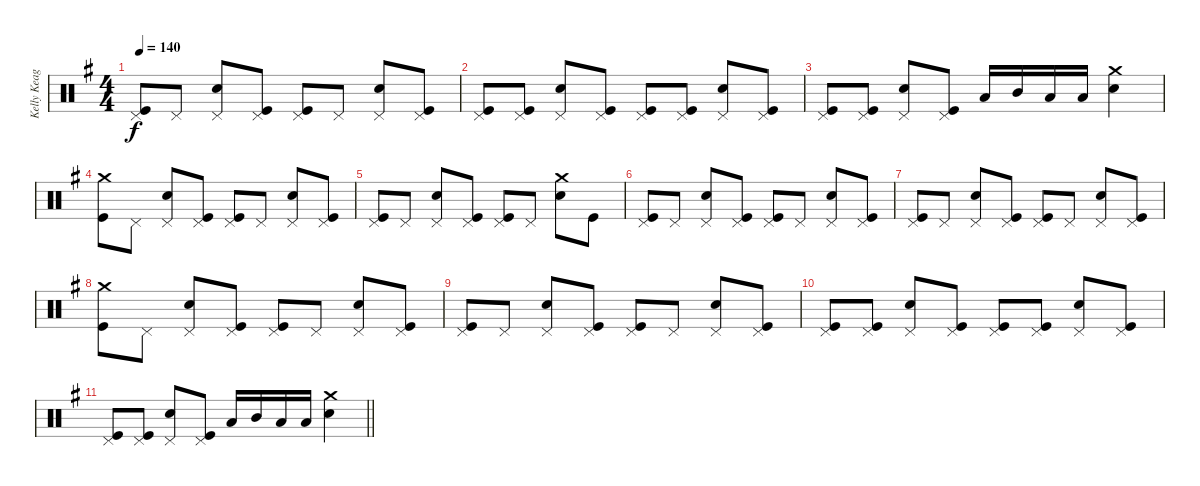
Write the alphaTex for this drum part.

\track ("Kelly Keagy" "Kelly Keag") {instrument percussion}
\staff {score}
\articulation defaults
\ts (4 4)
\tempo 140
\clef neutral
\ks g
("Pedal Hi-Hat (hit)" "Kick (hit)").8{dy f} "Pedal Hi-Hat (hit)".8 ("Pedal Hi-Hat (hit)" "Snare (hit) 2").8 ("Pedal Hi-Hat (hit)" "Kick (hit)").8 ("Pedal Hi-Hat (hit)" "Kick (hit)").8 "Pedal Hi-Hat (hit)".8 ("Pedal Hi-Hat (hit)" "Snare (hit) 2").8 ("Pedal Hi-Hat (hit)" "Kick (hit)").8 |
("Pedal Hi-Hat (hit)" "Kick (hit)").8 ("Pedal Hi-Hat (hit)" "Kick (hit)").8 ("Pedal Hi-Hat (hit)" "Snare (hit) 2").8 ("Pedal Hi-Hat (hit)" "Kick (hit)").8 ("Pedal Hi-Hat (hit)" "Kick (hit)").8 ("Pedal Hi-Hat (hit)" "Kick (hit)").8 ("Pedal Hi-Hat (hit)" "Snare (hit) 2").8 ("Pedal Hi-Hat (hit)" "Kick (hit)").8 |
("Pedal Hi-Hat (hit)" "Kick (hit)").8 ("Pedal Hi-Hat (hit)" "Kick (hit)").8 ("Pedal Hi-Hat (hit)" "Snare (hit) 2").8 ("Pedal Hi-Hat (hit)" "Kick (hit)").8 "Low Tom (hit)".16 "Mid Tom (hit)".16 "Low Tom (hit)".16 "Low Tom (hit)".16 ("Crash medium (hit)" "Snare (hit) 2").4 |
("Crash medium (hit)" "Kick (hit)").8{volume 0} "Pedal Hi-Hat (hit)".8 ("Pedal Hi-Hat (hit)" "Snare (hit) 2").8 ("Pedal Hi-Hat (hit)" "Kick (hit)").8 ("Pedal Hi-Hat (hit)" "Kick (hit)").8 "Pedal Hi-Hat (hit)".8 ("Pedal Hi-Hat (hit)" "Snare (hit) 2").8 ("Pedal Hi-Hat (hit)" "Kick (hit)").8 |
("Pedal Hi-Hat (hit)" "Kick (hit)").8 "Pedal Hi-Hat (hit)".8 ("Pedal Hi-Hat (hit)" "Snare (hit) 2").8 ("Pedal Hi-Hat (hit)" "Kick (hit)").8 ("Pedal Hi-Hat (hit)" "Kick (hit)").8 "Pedal Hi-Hat (hit)".8 ("Crash medium (hit)" "Snare (hit) 2").8 "Kick (hit)".8 |
("Pedal Hi-Hat (hit)" "Kick (hit)").8 "Pedal Hi-Hat (hit)".8 ("Pedal Hi-Hat (hit)" "Snare (hit) 2").8 ("Pedal Hi-Hat (hit)" "Kick (hit)").8 ("Pedal Hi-Hat (hit)" "Kick (hit)").8 "Pedal Hi-Hat (hit)".8 ("Pedal Hi-Hat (hit)" "Snare (hit) 2").8 ("Pedal Hi-Hat (hit)" "Kick (hit)").8 |
("Pedal Hi-Hat (hit)" "Kick (hit)").8 "Pedal Hi-Hat (hit)".8 ("Pedal Hi-Hat (hit)" "Snare (hit) 2").8 ("Pedal Hi-Hat (hit)" "Kick (hit)").8 ("Pedal Hi-Hat (hit)" "Kick (hit)").8 "Pedal Hi-Hat (hit)".8 ("Pedal Hi-Hat (hit)" "Snare (hit) 2").8 ("Pedal Hi-Hat (hit)" "Kick (hit)").8 |
("Crash medium (hit)" "Kick (hit)").8 "Pedal Hi-Hat (hit)".8 ("Pedal Hi-Hat (hit)" "Snare (hit) 2").8 ("Pedal Hi-Hat (hit)" "Kick (hit)").8 ("Pedal Hi-Hat (hit)" "Kick (hit)").8 "Pedal Hi-Hat (hit)".8 ("Pedal Hi-Hat (hit)" "Snare (hit) 2").8 ("Pedal Hi-Hat (hit)" "Kick (hit)").8 |
("Pedal Hi-Hat (hit)" "Kick (hit)").8 "Pedal Hi-Hat (hit)".8 ("Pedal Hi-Hat (hit)" "Snare (hit) 2").8 ("Pedal Hi-Hat (hit)" "Kick (hit)").8 ("Pedal Hi-Hat (hit)" "Kick (hit)").8 "Pedal Hi-Hat (hit)".8 ("Pedal Hi-Hat (hit)" "Snare (hit) 2").8 ("Pedal Hi-Hat (hit)" "Kick (hit)").8 |
("Pedal Hi-Hat (hit)" "Kick (hit)").8 ("Pedal Hi-Hat (hit)" "Kick (hit)").8 ("Pedal Hi-Hat (hit)" "Snare (hit) 2").8 ("Pedal Hi-Hat (hit)" "Kick (hit)").8 ("Pedal Hi-Hat (hit)" "Kick (hit)").8 ("Pedal Hi-Hat (hit)" "Kick (hit)").8 ("Pedal Hi-Hat (hit)" "Snare (hit) 2").8 ("Pedal Hi-Hat (hit)" "Kick (hit)").8 |
\barLineRight lightlight
("Pedal Hi-Hat (hit)" "Kick (hit)").8 ("Pedal Hi-Hat (hit)" "Kick (hit)").8 ("Pedal Hi-Hat (hit)" "Snare (hit) 2").8 ("Pedal Hi-Hat (hit)" "Kick (hit)").8 "Low Tom (hit)".16 "Mid Tom (hit)".16 "Low Tom (hit)".16 "Low Tom (hit)".16 ("Crash medium (hit)" "Snare (hit) 2").4
